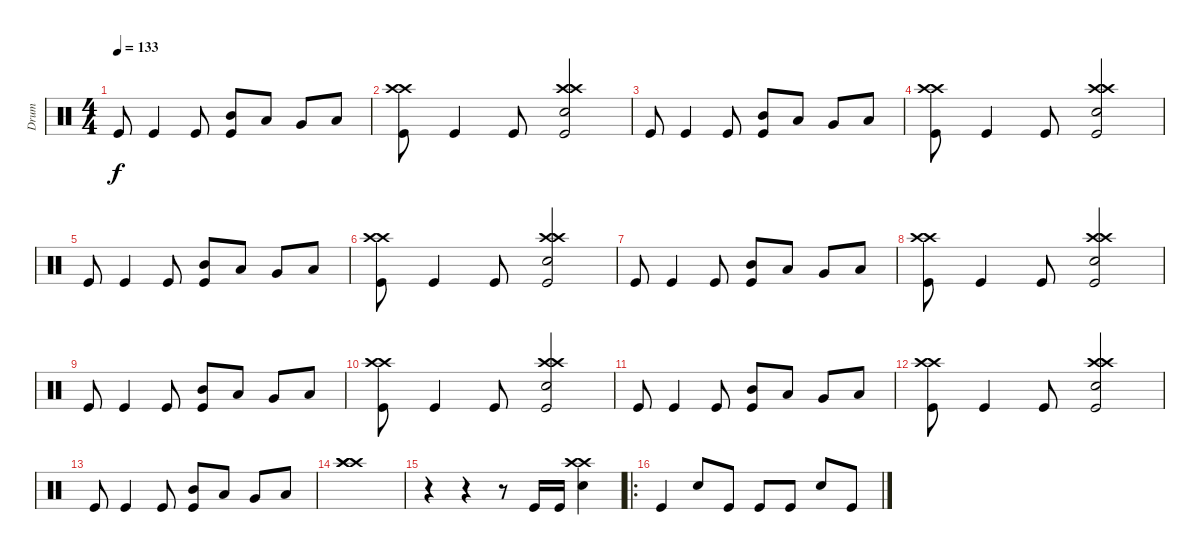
\track ("Drum" "Drum") {instrument percussion}
\staff {score}
\articulation defaults
\ts (4 4)
\tempo 133
\clef neutral
\ks c "Kick (hit)".8{dy f} "Kick (hit)".4 "Kick (hit)".8
("Mid Tom (hit)" "Kick (hit)").8 "Low Tom (hit)".8 "Very Low Tom (hit)".8 "Low Floor Tom (hit)".8 |
("Crash high (hit)" "Crash high (hit)" "Kick (hit)").8 "Kick (hit)".4 "Kick (hit)".8 ("Crash high (hit)" "Crash high (hit)" "Snare (hit) 2" "Kick (hit)").2 |
"Kick (hit)".8 "Kick (hit)".4 "Kick (hit)".8 ("Mid Tom (hit)" "Kick (hit)").8 "Low Tom (hit)".8 "Very Low Tom (hit)".8 "Low Floor Tom (hit)".8 |
("Crash high (hit)" "Crash high (hit)" "Kick (hit)").8 "Kick (hit)".4 "Kick (hit)".8 ("Crash high (hit)" "Crash high (hit)" "Snare (hit) 2" "Kick (hit)").2 |
"Kick (hit)".8 "Kick (hit)".4 "Kick (hit)".8 ("Mid Tom (hit)" "Kick (hit)").8 "Low Tom (hit)".8 "Very Low Tom (hit)".8 "Low Floor Tom (hit)".8 |
("Crash high (hit)" "Crash high (hit)" "Kick (hit)").8 "Kick (hit)".4 "Kick (hit)".8 ("Crash high (hit)" "Crash high (hit)" "Snare (hit) 2" "Kick (hit)").2 |
"Kick (hit)".8 "Kick (hit)".4 "Kick (hit)".8 ("Mid Tom (hit)" "Kick (hit)").8 "Low Tom (hit)".8 "Very Low Tom (hit)".8 "Low Floor Tom (hit)".8 |
("Crash high (hit)" "Crash high (hit)" "Kick (hit)").8 "Kick (hit)".4 "Kick (hit)".8 ("Crash high (hit)" "Crash high (hit)" "Snare (hit) 2" "Kick (hit)").2 |
"Kick (hit)".8 "Kick (hit)".4 "Kick (hit)".8 ("Mid Tom (hit)" "Kick (hit)").8 "Low Tom (hit)".8 "Very Low Tom (hit)".8 "Low Floor Tom (hit)".8 |
("Crash high (hit)" "Crash high (hit)" "Kick (hit)").8 "Kick (hit)".4 "Kick (hit)".8 ("Crash high (hit)" "Crash high (hit)" "Snare (hit) 2" "Kick (hit)").2 |
"Kick (hit)".8 "Kick (hit)".4 "Kick (hit)".8 ("Mid Tom (hit)" "Kick (hit)").8 "Low Tom (hit)".8 "Very Low Tom (hit)".8 "Low Floor Tom (hit)".8 |
("Crash high (hit)" "Crash high (hit)" "Kick (hit)").8 "Kick (hit)".4 "Kick (hit)".8 ("Crash high (hit)" "Crash high (hit)" "Snare (hit) 2" "Kick (hit)").2 |
"Kick (hit)".8 "Kick (hit)".4 "Kick (hit)".8 ("Mid Tom (hit)" "Kick (hit)").8 "Low Tom (hit)".8 "Very Low Tom (hit)".8 "Low Floor Tom (hit)".8 |
("Crash high (hit)" "Crash high (hit)" "Crash high (hit)").1 |
r.4 r.4 r.8 "Kick (hit)".16 "Kick (hit)".16 ("Crash high (hit)" "Crash high (hit)" "Snare (hit) 2").4 |
\ro "Kick (hit)".4 "Snare (hit) 2".8 "Kick (hit)".8 "Kick (hit)".8 "Kick (hit)".8 "Snare (hit) 2".8 "Kick (hit)".8
